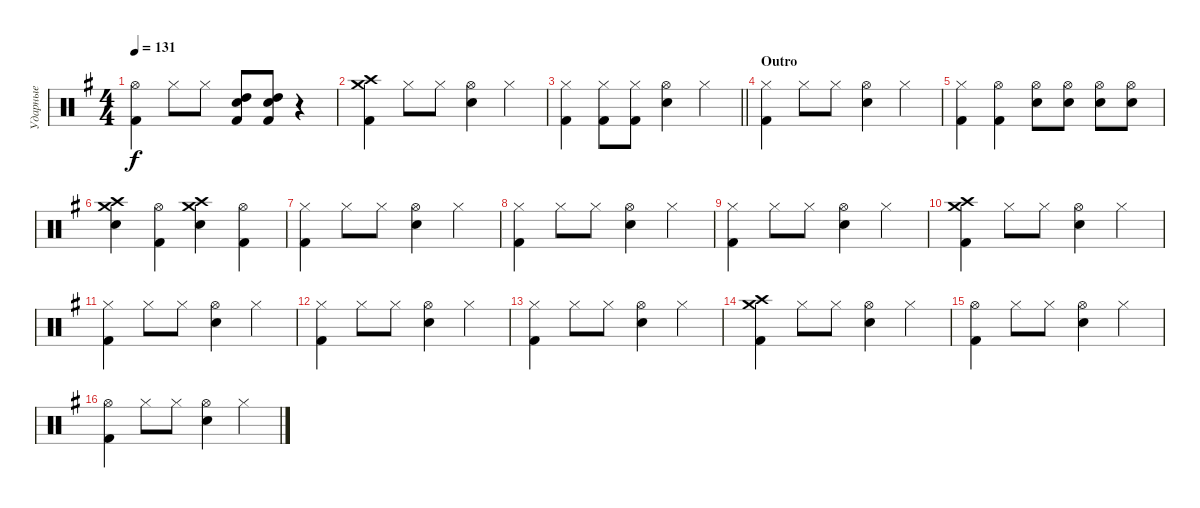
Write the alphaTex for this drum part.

\track ("Ударные" "Ударные") {instrument percussion}
\staff {score}
\articulation defaults
\ts (4 4)
\tempo 131
\clef neutral
\ks eminor
("Hi-Hat (open)" "Kick (hit) 2").4{dy f} "Hi-Hat (closed)".8 "Hi-Hat (closed)".8 ("High Tom (hit)" "Kick (hit) 2" "Electric Snare (hit)").8 ("High Tom (hit)" "Kick (hit) 2" "Electric Snare (hit)").8 r.4 |
("Crash medium (hit)" "Crash high (hit)" "Kick (hit) 2").4 "Hi-Hat (closed)".8 "Hi-Hat (closed)".8 ("Hi-Hat (open)" "Snare (hit) 2").4 "Hi-Hat (closed)".4 |
\barLineRight lightlight
("Hi-Hat (closed)" "Kick (hit) 2").4 ("Hi-Hat (closed)" "Kick (hit) 2").8 ("Hi-Hat (closed)" "Kick (hit) 2").8 ("Hi-Hat (open)" "Snare (hit) 2").4 "Hi-Hat (closed)".4 |
\section ("" "Outro")
("Hi-Hat (closed)" "Kick (hit) 2").4 "Hi-Hat (closed)".8 "Hi-Hat (closed)".8 ("Hi-Hat (open)" "Snare (hit) 2").4 "Hi-Hat (closed)".4 |
("Hi-Hat (closed)" "Kick (hit) 2").4 ("Hi-Hat (open)" "Kick (hit) 2").4 ("Hi-Hat (open)" "Snare (hit) 2").8 ("Hi-Hat (open)" "Snare (hit) 2").8 ("Hi-Hat (open)" "Snare (hit) 2").8 ("Hi-Hat (open)" "Snare (hit) 2").8 |
("Crash medium (hit)" "Crash high (hit)" "Snare (hit) 2").4 ("Hi-Hat (open)" "Kick (hit) 2").4 ("Crash medium (hit)" "Crash high (hit)" "Snare (hit) 2").4 ("Hi-Hat (open)" "Kick (hit) 2").4 |
("Hi-Hat (closed)" "Kick (hit) 2").4 "Hi-Hat (closed)".8 "Hi-Hat (closed)".8 ("Hi-Hat (open)" "Snare (hit) 2").4 "Hi-Hat (closed)".4 |
("Hi-Hat (closed)" "Kick (hit) 2").4 "Hi-Hat (closed)".8 "Hi-Hat (closed)".8 ("Hi-Hat (open)" "Snare (hit) 2").4 "Hi-Hat (closed)".4 |
("Hi-Hat (closed)" "Kick (hit) 2").4 "Hi-Hat (closed)".8 "Hi-Hat (closed)".8 ("Hi-Hat (open)" "Snare (hit) 2").4 "Hi-Hat (closed)".4 |
("Crash medium (hit)" "Crash high (hit)" "Kick (hit) 2").4 "Hi-Hat (closed)".8 "Hi-Hat (closed)".8 ("Hi-Hat (open)" "Snare (hit) 2").4 "Hi-Hat (closed)".4 |
("Hi-Hat (closed)" "Kick (hit) 2").4 "Hi-Hat (closed)".8 "Hi-Hat (closed)".8 ("Hi-Hat (open)" "Snare (hit) 2").4 "Hi-Hat (closed)".4 |
("Hi-Hat (closed)" "Kick (hit) 2").4 "Hi-Hat (closed)".8 "Hi-Hat (closed)".8 ("Hi-Hat (open)" "Snare (hit) 2").4 "Hi-Hat (closed)".4 |
("Hi-Hat (closed)" "Kick (hit) 2").4 "Hi-Hat (closed)".8 "Hi-Hat (closed)".8 ("Hi-Hat (open)" "Snare (hit) 2").4 "Hi-Hat (closed)".4 |
("Crash medium (hit)" "Crash high (hit)" "Kick (hit) 2").4 "Hi-Hat (closed)".8 "Hi-Hat (closed)".8 ("Hi-Hat (open)" "Snare (hit) 2").4 "Hi-Hat (closed)".4 |
("Hi-Hat (open)" "Kick (hit) 2").4 "Hi-Hat (closed)".8 "Hi-Hat (closed)".8 ("Hi-Hat (open)" "Snare (hit) 2").4 "Hi-Hat (closed)".4 |
("Hi-Hat (open)" "Kick (hit) 2").4 "Hi-Hat (closed)".8 "Hi-Hat (closed)".8 ("Hi-Hat (open)" "Snare (hit) 2").4 "Hi-Hat (closed)".4
